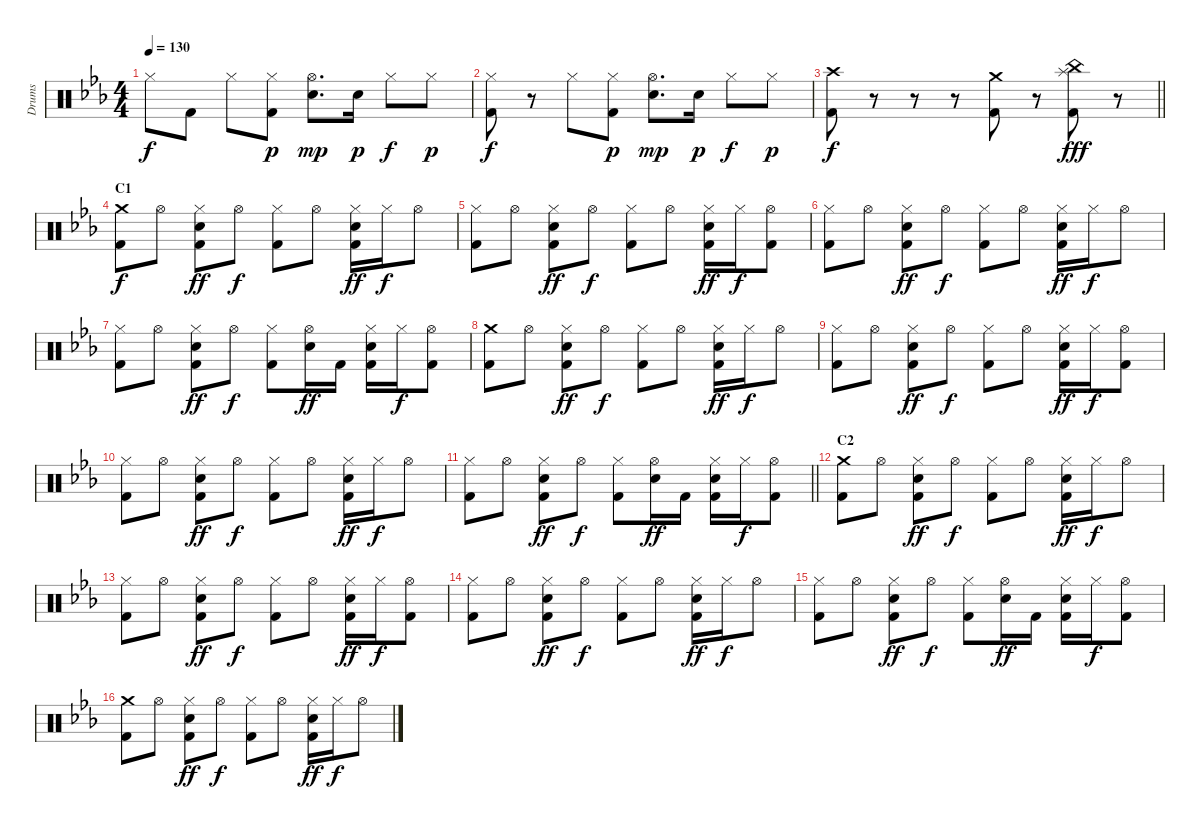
\track ("Drums" "Drums") {instrument percussion}
\staff {score}
\articulation defaults
\ts (4 4)
\tempo 130
\clef neutral
\ks eb "Hi-Hat (closed)".8{dy f} "Kick (hit) 2".8 "Hi-Hat (closed)".8
("Hi-Hat (closed)" "Kick (hit) 2").8{dy p} ("Hi-Hat (open)" "Electric Snare (hit)").8{d dy mp} "Electric Snare (hit)".16{dy p} "Hi-Hat (closed)".8{dy f} "Hi-Hat (closed)".8{dy p} |
("Hi-Hat (closed)" "Kick (hit) 2").8{dy f} r.8 "Hi-Hat (closed)".8 ("Hi-Hat (closed)" "Kick (hit) 2").8{dy p} ("Hi-Hat (open)" "Electric Snare (hit)").8{d dy mp} "Electric Snare (hit)".16{dy p} "Hi-Hat (closed)".8{dy f} "Hi-Hat (closed)".8{dy p} |
\barLineRight lightlight
("Crash high (hit)" "Kick (hit) 2").8{dy f} r.8 r.8 r.8 ("Crash medium (hit)" "Kick (hit) 2").8 r.8 ("Splash (hit)" "China (hit)" "Kick (hit) 2").8{dy fff} r.8 |
\section ("" "C1")
("Crash medium (hit)" "Kick (hit) 2").8{dy f} "Hi-Hat (open)".8 ("Hi-Hat (closed)" "Hand Clap (hit)" "Kick (hit) 2").8{dy ff} "Hi-Hat (open)".8{dy f} ("Hi-Hat (closed)" "Kick (hit) 2").8 "Hi-Hat (open)".8 ("Hi-Hat (closed)" "Hand Clap (hit)" "Kick (hit) 2").16{dy ff} "Hi-Hat (closed)".16{dy f} "Hi-Hat (open)".8 |
("Hi-Hat (closed)" "Kick (hit) 2").8 "Hi-Hat (open)".8 ("Hi-Hat (closed)" "Hand Clap (hit)" "Kick (hit) 2").8{dy ff} "Hi-Hat (open)".8{dy f} ("Hi-Hat (closed)" "Kick (hit) 2").8 "Hi-Hat (open)".8 ("Hi-Hat (closed)" "Hand Clap (hit)" "Kick (hit) 2").16{dy ff} "Hi-Hat (closed)".16{dy f} ("Hi-Hat (open)" "Kick (hit) 2").8 |
("Hi-Hat (closed)" "Kick (hit) 2").8 "Hi-Hat (open)".8 ("Hi-Hat (closed)" "Hand Clap (hit)" "Kick (hit) 2").8{dy ff} "Hi-Hat (open)".8{dy f} ("Hi-Hat (closed)" "Kick (hit) 2").8 "Hi-Hat (open)".8 ("Hi-Hat (closed)" "Hand Clap (hit)" "Kick (hit) 2").16{dy ff} "Hi-Hat (closed)".16{dy f} "Hi-Hat (open)".8 |
("Hi-Hat (closed)" "Kick (hit) 2").8 "Hi-Hat (open)".8 ("Hi-Hat (closed)" "Hand Clap (hit)" "Kick (hit) 2").8{dy ff} "Hi-Hat (open)".8{dy f} ("Hi-Hat (closed)" "Kick (hit) 2").8 ("Hi-Hat (open)" "Hand Clap (hit)").16{dy ff} "Kick (hit) 2".16 ("Hi-Hat (closed)" "Hand Clap (hit)" "Kick (hit) 2").16 "Hi-Hat (closed)".16{dy f} ("Hi-Hat (open)" "Kick (hit) 2").8 |
("Crash medium (hit)" "Kick (hit) 2").8 "Hi-Hat (open)".8 ("Hi-Hat (closed)" "Hand Clap (hit)" "Kick (hit) 2").8{dy ff} "Hi-Hat (open)".8{dy f} ("Hi-Hat (closed)" "Kick (hit) 2").8 "Hi-Hat (open)".8 ("Hi-Hat (closed)" "Hand Clap (hit)" "Kick (hit) 2").16{dy ff} "Hi-Hat (closed)".16{dy f} "Hi-Hat (open)".8 |
("Hi-Hat (closed)" "Kick (hit) 2").8 "Hi-Hat (open)".8 ("Hi-Hat (closed)" "Hand Clap (hit)" "Kick (hit) 2").8{dy ff} "Hi-Hat (open)".8{dy f} ("Hi-Hat (closed)" "Kick (hit) 2").8 "Hi-Hat (open)".8 ("Hi-Hat (closed)" "Hand Clap (hit)" "Kick (hit) 2").16{dy ff} "Hi-Hat (closed)".16{dy f} ("Hi-Hat (open)" "Kick (hit) 2").8 |
("Hi-Hat (closed)" "Kick (hit) 2").8 "Hi-Hat (open)".8 ("Hi-Hat (closed)" "Hand Clap (hit)" "Kick (hit) 2").8{dy ff} "Hi-Hat (open)".8{dy f} ("Hi-Hat (closed)" "Kick (hit) 2").8 "Hi-Hat (open)".8 ("Hi-Hat (closed)" "Hand Clap (hit)" "Kick (hit) 2").16{dy ff} "Hi-Hat (closed)".16{dy f} "Hi-Hat (open)".8 |
\barLineRight lightlight
("Hi-Hat (closed)" "Kick (hit) 2").8 "Hi-Hat (open)".8 ("Hi-Hat (closed)" "Hand Clap (hit)" "Kick (hit) 2").8{dy ff} "Hi-Hat (open)".8{dy f} ("Hi-Hat (closed)" "Kick (hit) 2").8 ("Hi-Hat (open)" "Hand Clap (hit)").16{dy ff} "Kick (hit) 2".16 ("Hi-Hat (closed)" "Hand Clap (hit)" "Kick (hit) 2").16 "Hi-Hat (closed)".16{dy f} ("Hi-Hat (open)" "Kick (hit) 2").8 |
\section ("" "C2")
("Crash medium (hit)" "Kick (hit) 2").8 "Hi-Hat (open)".8 ("Hi-Hat (closed)" "Hand Clap (hit)" "Kick (hit) 2").8{dy ff} "Hi-Hat (open)".8{dy f} ("Hi-Hat (closed)" "Kick (hit) 2").8 "Hi-Hat (open)".8 ("Hi-Hat (closed)" "Hand Clap (hit)" "Kick (hit) 2").16{dy ff} "Hi-Hat (closed)".16{dy f} "Hi-Hat (open)".8 |
("Hi-Hat (closed)" "Kick (hit) 2").8 "Hi-Hat (open)".8 ("Hi-Hat (closed)" "Hand Clap (hit)" "Kick (hit) 2").8{dy ff} "Hi-Hat (open)".8{dy f} ("Hi-Hat (closed)" "Kick (hit) 2").8 "Hi-Hat (open)".8 ("Hi-Hat (closed)" "Hand Clap (hit)" "Kick (hit) 2").16{dy ff} "Hi-Hat (closed)".16{dy f} ("Hi-Hat (open)" "Kick (hit) 2").8 |
("Hi-Hat (closed)" "Kick (hit) 2").8 "Hi-Hat (open)".8 ("Hi-Hat (closed)" "Hand Clap (hit)" "Kick (hit) 2").8{dy ff} "Hi-Hat (open)".8{dy f} ("Hi-Hat (closed)" "Kick (hit) 2").8 "Hi-Hat (open)".8 ("Hi-Hat (closed)" "Hand Clap (hit)" "Kick (hit) 2").16{dy ff} "Hi-Hat (closed)".16{dy f} "Hi-Hat (open)".8 |
("Hi-Hat (closed)" "Kick (hit) 2").8 "Hi-Hat (open)".8 ("Hi-Hat (closed)" "Hand Clap (hit)" "Kick (hit) 2").8{dy ff} "Hi-Hat (open)".8{dy f} ("Hi-Hat (closed)" "Kick (hit) 2").8 ("Hi-Hat (open)" "Hand Clap (hit)").16{dy ff} "Kick (hit) 2".16 ("Hi-Hat (closed)" "Hand Clap (hit)" "Kick (hit) 2").16 "Hi-Hat (closed)".16{dy f} ("Hi-Hat (open)" "Kick (hit) 2").8 |
("Crash medium (hit)" "Kick (hit) 2").8 "Hi-Hat (open)".8 ("Hi-Hat (closed)" "Hand Clap (hit)" "Kick (hit) 2").8{dy ff} "Hi-Hat (open)".8{dy f} ("Hi-Hat (closed)" "Kick (hit) 2").8 "Hi-Hat (open)".8 ("Hi-Hat (closed)" "Hand Clap (hit)" "Kick (hit) 2").16{dy ff} "Hi-Hat (closed)".16{dy f} "Hi-Hat (open)".8
